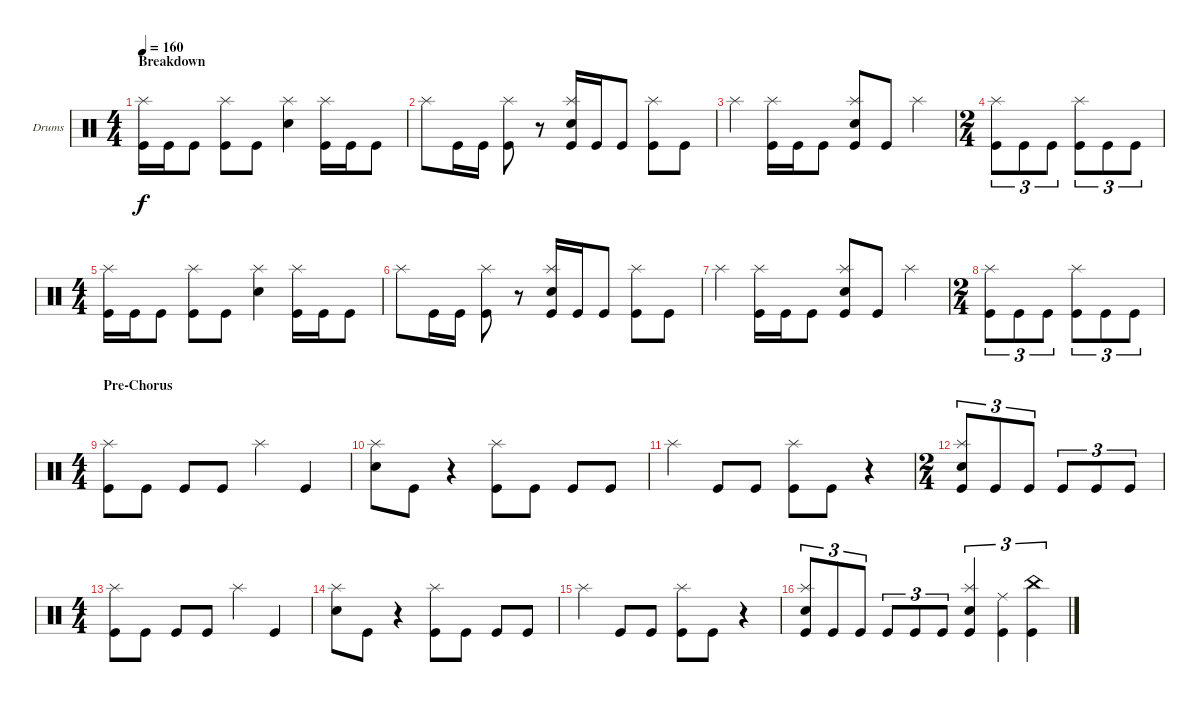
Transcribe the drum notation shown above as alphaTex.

\defaultSystemsLayout 4
\bracketExtendMode groupsimilarinstruments
\firstSystemTrackNameOrientation horizontal
\otherSystemsTrackNameOrientation horizontal
\track ("Drumkit" "Drums") {instrument percussion}
\staff {score}
\articulation defaults
\ts (4 4)
\section ("" "Breakdown")
\tempo 160
\clef neutral
\ks c
("Kick (hit)" "Splash (hit)").16{dy f} "Kick (hit)".16 "Kick (hit)".8 ("Kick (hit)" "Splash (hit)").8 "Kick (hit)".8 ("Snare (hit) 2" "Splash (hit)").4 ("Kick (hit)" "Splash (hit)").16 "Kick (hit)".16 "Kick (hit)".8 |
"Splash (hit)".8 "Kick (hit)".16 "Kick (hit)".16 ("Kick (hit)" "Splash (hit)").8 r.8 ("Kick (hit)" "Splash (hit)" "Snare (hit) 2").16 "Kick (hit)".16 "Kick (hit)".8 ("Kick (hit)" "Splash (hit)").8 "Kick (hit)".8 |
"Splash (hit)".4 ("Splash (hit)" "Kick (hit)").16 "Kick (hit)".16 "Kick (hit)".8 ("Kick (hit)" "Splash (hit)" "Snare (hit) 2").8 "Kick (hit)".8 "Splash (hit)".4 |
\ts (2 4)
("Kick (hit)" "Splash (hit)").8{tu (3 2)} "Kick (hit)".8{tu (3 2)} "Kick (hit)".8{tu (3 2)} ("Kick (hit)" "Splash (hit)").8{tu (3 2)} "Kick (hit)".8{tu (3 2)} "Kick (hit)".8{tu (3 2)} |
\ts (4 4)
("Kick (hit)" "Splash (hit)").16 "Kick (hit)".16 "Kick (hit)".8 ("Kick (hit)" "Splash (hit)").8 "Kick (hit)".8 ("Snare (hit) 2" "Splash (hit)").4 ("Kick (hit)" "Splash (hit)").16 "Kick (hit)".16 "Kick (hit)".8 |
"Splash (hit)".8 "Kick (hit)".16 "Kick (hit)".16 ("Kick (hit)" "Splash (hit)").8 r.8 ("Kick (hit)" "Splash (hit)" "Snare (hit) 2").16 "Kick (hit)".16 "Kick (hit)".8 ("Kick (hit)" "Splash (hit)").8 "Kick (hit)".8 |
"Splash (hit)".4 ("Splash (hit)" "Kick (hit)").16 "Kick (hit)".16 "Kick (hit)".8 ("Kick (hit)" "Splash (hit)" "Snare (hit) 2").8 "Kick (hit)".8 "Splash (hit)".4 |
\ts (2 4)
("Kick (hit)" "Splash (hit)").8{tu (3 2)} "Kick (hit)".8{tu (3 2)} "Kick (hit)".8{tu (3 2)} ("Kick (hit)" "Splash (hit)").8{tu (3 2)} "Kick (hit)".8{tu (3 2)} "Kick (hit)".8{tu (3 2)} |
\ts (4 4)
\section ("" "Pre-Chorus")
("Kick (hit)" "Splash (hit)").8 "Kick (hit)".8 "Kick (hit)".8 "Kick (hit)".8 "Splash (hit)".4 "Kick (hit)".4 |
("Splash (hit)" "Snare (hit) 2").8 "Kick (hit)".8 r.4 ("Kick (hit)" "Splash (hit)").8 "Kick (hit)".8 "Kick (hit)".8 "Kick (hit)".8 |
"Splash (hit)".4 "Kick (hit)".8 "Kick (hit)".8 ("Kick (hit)" "Splash (hit)").8 "Kick (hit)".8 r.4 |
\ts (2 4)
("Kick (hit)" "Splash (hit)" "Snare (hit) 2").8{tu (3 2)} "Kick (hit)".8{tu (3 2)} "Kick (hit)".8{tu (3 2)} "Kick (hit)".8{tu (3 2)} "Kick (hit)".8{tu (3 2)} "Kick (hit)".8{tu (3 2)} |
\ts (4 4)
("Kick (hit)" "Splash (hit)").8 "Kick (hit)".8 "Kick (hit)".8 "Kick (hit)".8 "Splash (hit)".4 "Kick (hit)".4 |
("Splash (hit)" "Snare (hit) 2").8 "Kick (hit)".8 r.4 ("Kick (hit)" "Splash (hit)").8 "Kick (hit)".8 "Kick (hit)".8 "Kick (hit)".8 |
"Splash (hit)".4 "Kick (hit)".8 "Kick (hit)".8 ("Kick (hit)" "Splash (hit)").8 "Kick (hit)".8 r.4 |
("Kick (hit)" "Splash (hit)" "Snare (hit) 2").8{tu (3 2)} "Kick (hit)".8{tu (3 2)} "Kick (hit)".8{tu (3 2)} "Kick (hit)".8{tu (3 2)} "Kick (hit)".8{tu (3 2)} "Kick (hit)".8{tu (3 2)} ("Snare (hit) 2" "Kick (hit)" "Splash (hit)").4{tu (3 2)} ("Kick (hit)" "Ride (middle)").4{tu (3 2)} ("Kick (hit)" "China (hit)").4{tu (3 2)}
